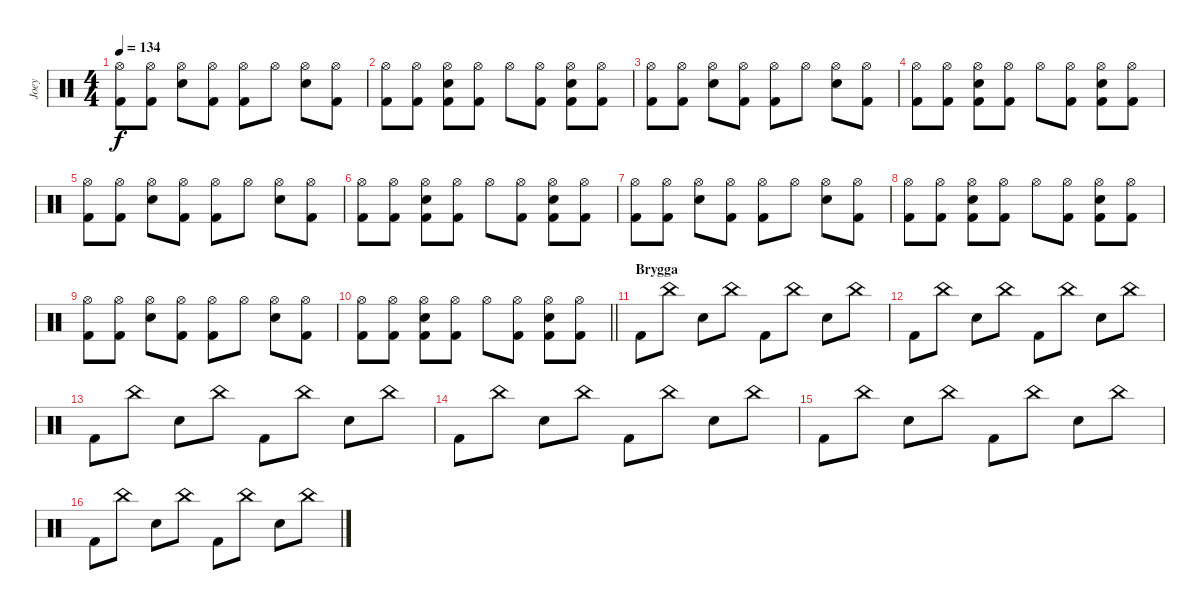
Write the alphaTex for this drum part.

\track ("Joey" "Joey") {instrument percussion}
\staff {score}
\articulation defaults
\ts (4 4)
\tempo 134
\clef neutral
\ks c
("Hi-Hat (open)" "Kick (hit) 2").8{dy f} ("Hi-Hat (open)" "Kick (hit) 2").8 ("Hi-Hat (open)" "Electric Snare (hit)").8 ("Hi-Hat (open)" "Kick (hit) 2").8 ("Hi-Hat (open)" "Kick (hit) 2").8 "Hi-Hat (open)".8 ("Hi-Hat (open)" "Electric Snare (hit)").8 ("Hi-Hat (open)" "Kick (hit) 2").8 |
("Hi-Hat (open)" "Kick (hit) 2").8 ("Hi-Hat (open)" "Kick (hit) 2").8 ("Hi-Hat (open)" "Electric Snare (hit)" "Kick (hit) 2").8 ("Hi-Hat (open)" "Kick (hit) 2").8 "Hi-Hat (open)".8 ("Hi-Hat (open)" "Kick (hit) 2").8 ("Hi-Hat (open)" "Electric Snare (hit)" "Kick (hit) 2").8 ("Hi-Hat (open)" "Kick (hit) 2").8 |
("Hi-Hat (open)" "Kick (hit) 2").8 ("Hi-Hat (open)" "Kick (hit) 2").8 ("Hi-Hat (open)" "Electric Snare (hit)").8 ("Hi-Hat (open)" "Kick (hit) 2").8 ("Hi-Hat (open)" "Kick (hit) 2").8 "Hi-Hat (open)".8 ("Hi-Hat (open)" "Electric Snare (hit)").8 ("Hi-Hat (open)" "Kick (hit) 2").8 |
("Hi-Hat (open)" "Kick (hit) 2").8 ("Hi-Hat (open)" "Kick (hit) 2").8 ("Hi-Hat (open)" "Electric Snare (hit)" "Kick (hit) 2").8 ("Hi-Hat (open)" "Kick (hit) 2").8 "Hi-Hat (open)".8 ("Hi-Hat (open)" "Kick (hit) 2").8 ("Hi-Hat (open)" "Electric Snare (hit)" "Kick (hit) 2").8 ("Hi-Hat (open)" "Kick (hit) 2").8 |
("Hi-Hat (open)" "Kick (hit) 2").8 ("Hi-Hat (open)" "Kick (hit) 2").8 ("Hi-Hat (open)" "Electric Snare (hit)").8 ("Hi-Hat (open)" "Kick (hit) 2").8 ("Hi-Hat (open)" "Kick (hit) 2").8 "Hi-Hat (open)".8 ("Hi-Hat (open)" "Electric Snare (hit)").8 ("Hi-Hat (open)" "Kick (hit) 2").8 |
("Hi-Hat (open)" "Kick (hit) 2").8 ("Hi-Hat (open)" "Kick (hit) 2").8 ("Hi-Hat (open)" "Electric Snare (hit)" "Kick (hit) 2").8 ("Hi-Hat (open)" "Kick (hit) 2").8 "Hi-Hat (open)".8 ("Hi-Hat (open)" "Kick (hit) 2").8 ("Hi-Hat (open)" "Electric Snare (hit)" "Kick (hit) 2").8 ("Hi-Hat (open)" "Kick (hit) 2").8 |
("Hi-Hat (open)" "Kick (hit) 2").8 ("Hi-Hat (open)" "Kick (hit) 2").8 ("Hi-Hat (open)" "Electric Snare (hit)").8 ("Hi-Hat (open)" "Kick (hit) 2").8 ("Hi-Hat (open)" "Kick (hit) 2").8 "Hi-Hat (open)".8 ("Hi-Hat (open)" "Electric Snare (hit)").8 ("Hi-Hat (open)" "Kick (hit) 2").8 |
("Hi-Hat (open)" "Kick (hit) 2").8 ("Hi-Hat (open)" "Kick (hit) 2").8 ("Hi-Hat (open)" "Electric Snare (hit)" "Kick (hit) 2").8 ("Hi-Hat (open)" "Kick (hit) 2").8 "Hi-Hat (open)".8 ("Hi-Hat (open)" "Kick (hit) 2").8 ("Hi-Hat (open)" "Electric Snare (hit)" "Kick (hit) 2").8 ("Hi-Hat (open)" "Kick (hit) 2").8 |
("Hi-Hat (open)" "Kick (hit) 2").8 ("Hi-Hat (open)" "Kick (hit) 2").8 ("Hi-Hat (open)" "Electric Snare (hit)").8 ("Hi-Hat (open)" "Kick (hit) 2").8 ("Hi-Hat (open)" "Kick (hit) 2").8 "Hi-Hat (open)".8 ("Hi-Hat (open)" "Electric Snare (hit)").8 ("Hi-Hat (open)" "Kick (hit) 2").8 |
\barLineRight lightlight
("Hi-Hat (open)" "Kick (hit) 2").8 ("Hi-Hat (open)" "Kick (hit) 2").8 ("Hi-Hat (open)" "Electric Snare (hit)" "Kick (hit) 2").8 ("Hi-Hat (open)" "Kick (hit) 2").8 "Hi-Hat (open)".8 ("Hi-Hat (open)" "Kick (hit) 2").8 ("Hi-Hat (open)" "Electric Snare (hit)" "Kick (hit) 2").8 ("Hi-Hat (open)" "Kick (hit) 2").8 |
\section ("" "Brygga")
"Kick (hit) 2".8 "China (hit)".8 "Electric Snare (hit)".8 "China (hit)".8 "Kick (hit) 2".8 "China (hit)".8 "Electric Snare (hit)".8 "China (hit)".8 |
"Kick (hit) 2".8 "China (hit)".8 "Electric Snare (hit)".8 "China (hit)".8 "Kick (hit) 2".8 "China (hit)".8 "Electric Snare (hit)".8 "China (hit)".8 |
"Kick (hit) 2".8 "China (hit)".8 "Electric Snare (hit)".8 "China (hit)".8 "Kick (hit) 2".8 "China (hit)".8 "Electric Snare (hit)".8 "China (hit)".8 |
"Kick (hit) 2".8 "China (hit)".8 "Electric Snare (hit)".8 "China (hit)".8 "Kick (hit) 2".8 "China (hit)".8 "Electric Snare (hit)".8 "China (hit)".8 |
"Kick (hit) 2".8 "China (hit)".8 "Electric Snare (hit)".8 "China (hit)".8 "Kick (hit) 2".8 "China (hit)".8 "Electric Snare (hit)".8 "China (hit)".8 |
"Kick (hit) 2".8 "China (hit)".8 "Electric Snare (hit)".8 "China (hit)".8 "Kick (hit) 2".8 "China (hit)".8 "Electric Snare (hit)".8 "China (hit)".8
